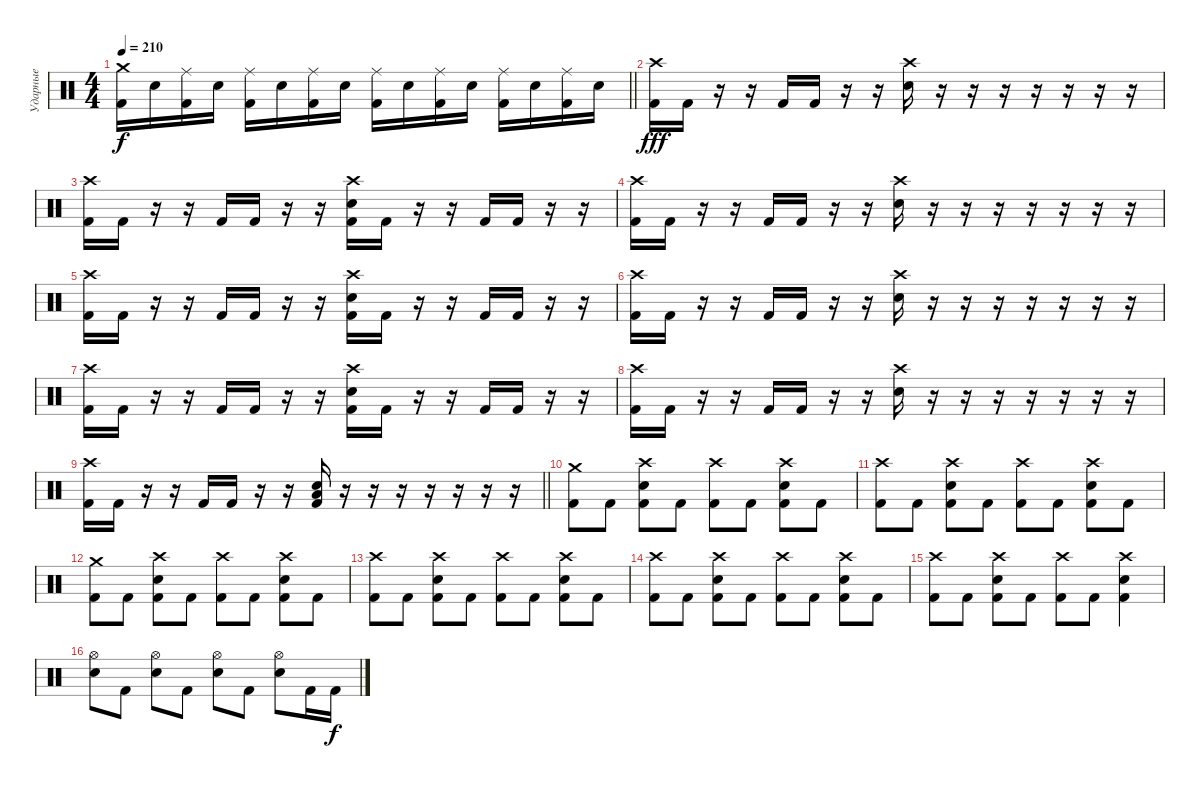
\track ("Ударные" "Ударные") {instrument percussion}
\staff {score}
\articulation defaults
\ts (4 4)
\tempo 210
\clef neutral
\barLineRight lightlight
\ks c
("Crash medium (hit)" "Kick (hit) 2").16{dy f} "Electric Snare (hit)".16 ("Ride (middle)" "Kick (hit) 2").16 "Electric Snare (hit)".16 ("Ride (middle)" "Kick (hit) 2").16 "Electric Snare (hit)".16 ("Ride (middle)" "Kick (hit) 2").16 "Electric Snare (hit)".16 ("Ride (middle)" "Kick (hit) 2").16 "Electric Snare (hit)".16 ("Ride (middle)" "Kick (hit) 2").16 "Electric Snare (hit)".16 ("Ride (middle)" "Kick (hit) 2").16 "Electric Snare (hit)".16 ("Ride (middle)" "Kick (hit) 2").16 "Electric Snare (hit)".16 |
("Crash high (hit)" "Kick (hit) 2").16{dy fff} "Kick (hit) 2".16 r.16 r.16 "Kick (hit) 2".16 "Kick (hit) 2".16 r.16 r.16 ("Crash high (hit)" "Electric Snare (hit)").16 r.16 r.16 r.16 r.16 r.16 r.16 r.16 |
("Crash high (hit)" "Kick (hit) 2").16 "Kick (hit) 2".16 r.16 r.16 "Kick (hit) 2".16 "Kick (hit) 2".16 r.16 r.16 ("Crash high (hit)" "Electric Snare (hit)" "Kick (hit) 2").16 "Kick (hit) 2".16 r.16 r.16 "Kick (hit) 2".16 "Kick (hit) 2".16 r.16 r.16 |
("Crash high (hit)" "Kick (hit) 2").16 "Kick (hit) 2".16 r.16 r.16 "Kick (hit) 2".16 "Kick (hit) 2".16 r.16 r.16 ("Crash high (hit)" "Electric Snare (hit)").16 r.16 r.16 r.16 r.16 r.16 r.16 r.16 |
("Crash high (hit)" "Kick (hit) 2").16 "Kick (hit) 2".16 r.16 r.16 "Kick (hit) 2".16 "Kick (hit) 2".16 r.16 r.16 ("Crash high (hit)" "Electric Snare (hit)" "Kick (hit) 2").16 "Kick (hit) 2".16 r.16 r.16 "Kick (hit) 2".16 "Kick (hit) 2".16 r.16 r.16 |
("Crash high (hit)" "Kick (hit) 2").16 "Kick (hit) 2".16 r.16 r.16 "Kick (hit) 2".16 "Kick (hit) 2".16 r.16 r.16 ("Crash high (hit)" "Electric Snare (hit)").16 r.16 r.16 r.16 r.16 r.16 r.16 r.16 |
("Crash high (hit)" "Kick (hit) 2").16 "Kick (hit) 2".16 r.16 r.16 "Kick (hit) 2".16 "Kick (hit) 2".16 r.16 r.16 ("Crash high (hit)" "Electric Snare (hit)" "Kick (hit) 2").16 "Kick (hit) 2".16 r.16 r.16 "Kick (hit) 2".16 "Kick (hit) 2".16 r.16 r.16 |
("Crash high (hit)" "Kick (hit) 2").16 "Kick (hit) 2".16 r.16 r.16 "Kick (hit) 2".16 "Kick (hit) 2".16 r.16 r.16 ("Crash high (hit)" "Electric Snare (hit)").16 r.16 r.16 r.16 r.16 r.16 r.16 r.16 |
\barLineRight lightlight
("Crash high (hit)" "Kick (hit) 2").16 "Kick (hit) 2".16 r.16 r.16 "Kick (hit) 2".16 "Kick (hit) 2".16 r.16 r.16 ("Low Floor Tom (hit)" "Electric Snare (hit)" "Kick (hit) 2").16 r.16 r.16 r.16 r.16 r.16 r.16 r.16 |
("Crash medium (hit)" "Kick (hit) 2").8 "Kick (hit) 2".8 ("Crash high (hit)" "Electric Snare (hit)" "Kick (hit) 2").8 "Kick (hit) 2".8 ("Crash high (hit)" "Kick (hit) 2").8 "Kick (hit) 2".8 ("Crash high (hit)" "Electric Snare (hit)" "Kick (hit) 2").8 "Kick (hit) 2".8 |
("Crash high (hit)" "Kick (hit) 2").8 "Kick (hit) 2".8 ("Crash high (hit)" "Electric Snare (hit)" "Kick (hit) 2").8 "Kick (hit) 2".8 ("Crash high (hit)" "Kick (hit) 2").8 "Kick (hit) 2".8 ("Crash high (hit)" "Electric Snare (hit)" "Kick (hit) 2").8 "Kick (hit) 2".8 |
("Crash medium (hit)" "Kick (hit) 2").8 "Kick (hit) 2".8 ("Crash high (hit)" "Electric Snare (hit)" "Kick (hit) 2").8 "Kick (hit) 2".8 ("Crash high (hit)" "Kick (hit) 2").8 "Kick (hit) 2".8 ("Crash high (hit)" "Electric Snare (hit)" "Kick (hit) 2").8 "Kick (hit) 2".8 |
("Crash high (hit)" "Kick (hit) 2").8 "Kick (hit) 2".8 ("Crash high (hit)" "Electric Snare (hit)" "Kick (hit) 2").8 "Kick (hit) 2".8 ("Crash high (hit)" "Kick (hit) 2").8 "Kick (hit) 2".8 ("Crash high (hit)" "Electric Snare (hit)" "Kick (hit) 2").8 "Kick (hit) 2".8 |
("Crash high (hit)" "Kick (hit) 2").8 "Kick (hit) 2".8 ("Crash high (hit)" "Electric Snare (hit)" "Kick (hit) 2").8 "Kick (hit) 2".8 ("Crash high (hit)" "Kick (hit) 2").8 "Kick (hit) 2".8 ("Crash high (hit)" "Electric Snare (hit)" "Kick (hit) 2").8 "Kick (hit) 2".8 |
("Crash high (hit)" "Kick (hit) 2").8 "Kick (hit) 2".8 ("Crash high (hit)" "Electric Snare (hit)" "Kick (hit) 2").8 "Kick (hit) 2".8 ("Crash high (hit)" "Kick (hit) 2").8 "Kick (hit) 2".8 ("Crash high (hit)" "Electric Snare (hit)" "Kick (hit) 2").4 |
("Hi-Hat (open)" "Electric Snare (hit)").8 "Kick (hit) 2".8 ("Hi-Hat (open)" "Electric Snare (hit)").8 "Kick (hit) 2".8 ("Hi-Hat (open)" "Electric Snare (hit)").8 "Kick (hit) 2".8 ("Hi-Hat (open)" "Electric Snare (hit)").8 "Kick (hit) 2".16 "Kick (hit) 2".16{dy f}
